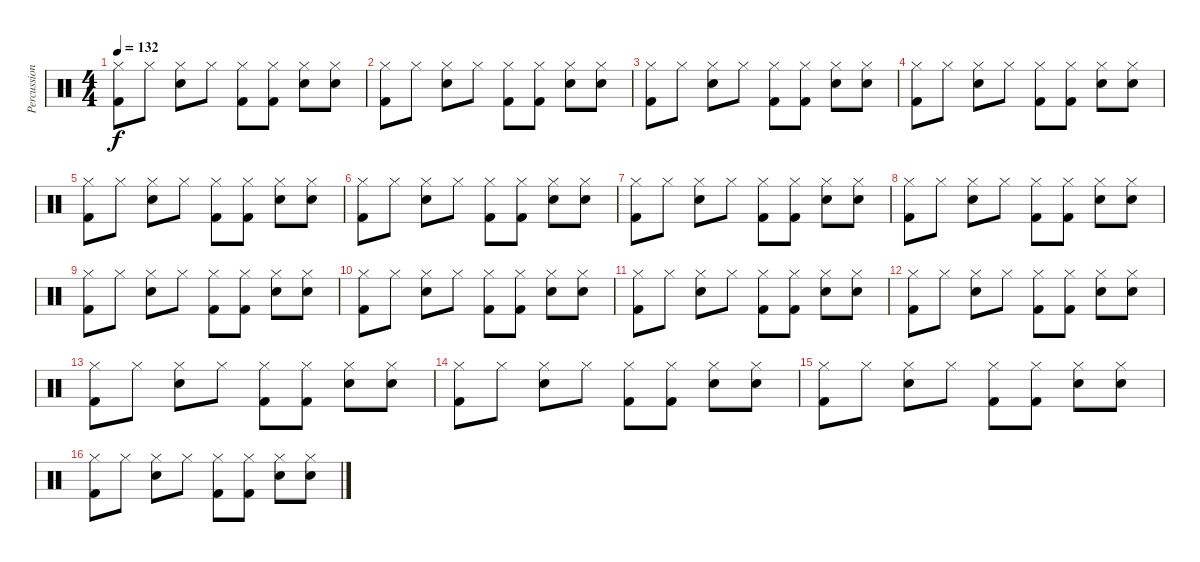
\track ("Percussions" "Percussion") {instrument percussion}
\staff {score}
\articulation defaults
\ts (4 4)
\tempo 132
\clef neutral
\ks c
("Hi-Hat (closed)" "Kick (hit) 2").8{dy f} "Hi-Hat (closed)".8 ("Hi-Hat (closed)" "Snare (hit) 2").8 "Hi-Hat (closed)".8 ("Hi-Hat (closed)" "Kick (hit) 2").8 ("Hi-Hat (closed)" "Kick (hit) 2").8 ("Hi-Hat (closed)" "Snare (hit) 2").8 ("Hi-Hat (closed)" "Snare (hit) 2").8 |
("Hi-Hat (closed)" "Kick (hit) 2").8 "Hi-Hat (closed)".8 ("Hi-Hat (closed)" "Snare (hit) 2").8 "Hi-Hat (closed)".8 ("Hi-Hat (closed)" "Kick (hit) 2").8 ("Hi-Hat (closed)" "Kick (hit) 2").8 ("Hi-Hat (closed)" "Snare (hit) 2").8 ("Hi-Hat (closed)" "Snare (hit) 2").8 |
("Hi-Hat (closed)" "Kick (hit) 2").8 "Hi-Hat (closed)".8 ("Hi-Hat (closed)" "Snare (hit) 2").8 "Hi-Hat (closed)".8 ("Hi-Hat (closed)" "Kick (hit) 2").8 ("Hi-Hat (closed)" "Kick (hit) 2").8 ("Hi-Hat (closed)" "Snare (hit) 2").8 ("Hi-Hat (closed)" "Snare (hit) 2").8 |
("Hi-Hat (closed)" "Kick (hit) 2").8 "Hi-Hat (closed)".8 ("Hi-Hat (closed)" "Snare (hit) 2").8 "Hi-Hat (closed)".8 ("Hi-Hat (closed)" "Kick (hit) 2").8 ("Hi-Hat (closed)" "Kick (hit) 2").8 ("Hi-Hat (closed)" "Snare (hit) 2").8 ("Hi-Hat (closed)" "Snare (hit) 2").8 |
("Hi-Hat (closed)" "Kick (hit) 2").8 "Hi-Hat (closed)".8 ("Hi-Hat (closed)" "Snare (hit) 2").8 "Hi-Hat (closed)".8 ("Hi-Hat (closed)" "Kick (hit) 2").8 ("Hi-Hat (closed)" "Kick (hit) 2").8 ("Hi-Hat (closed)" "Snare (hit) 2").8 ("Hi-Hat (closed)" "Snare (hit) 2").8 |
("Hi-Hat (closed)" "Kick (hit) 2").8 "Hi-Hat (closed)".8 ("Hi-Hat (closed)" "Snare (hit) 2").8 "Hi-Hat (closed)".8 ("Hi-Hat (closed)" "Kick (hit) 2").8 ("Hi-Hat (closed)" "Kick (hit) 2").8 ("Hi-Hat (closed)" "Snare (hit) 2").8 ("Hi-Hat (closed)" "Snare (hit) 2").8 |
("Hi-Hat (closed)" "Kick (hit) 2").8 "Hi-Hat (closed)".8 ("Hi-Hat (closed)" "Snare (hit) 2").8 "Hi-Hat (closed)".8 ("Hi-Hat (closed)" "Kick (hit) 2").8 ("Hi-Hat (closed)" "Kick (hit) 2").8 ("Hi-Hat (closed)" "Snare (hit) 2").8 ("Hi-Hat (closed)" "Snare (hit) 2").8 |
("Hi-Hat (closed)" "Kick (hit) 2").8 "Hi-Hat (closed)".8 ("Hi-Hat (closed)" "Snare (hit) 2").8 "Hi-Hat (closed)".8 ("Hi-Hat (closed)" "Kick (hit) 2").8 ("Hi-Hat (closed)" "Kick (hit) 2").8 ("Hi-Hat (closed)" "Snare (hit) 2").8 ("Hi-Hat (closed)" "Snare (hit) 2").8 |
("Hi-Hat (closed)" "Kick (hit) 2").8 "Hi-Hat (closed)".8 ("Hi-Hat (closed)" "Snare (hit) 2").8 "Hi-Hat (closed)".8 ("Hi-Hat (closed)" "Kick (hit) 2").8 ("Hi-Hat (closed)" "Kick (hit) 2").8 ("Hi-Hat (closed)" "Snare (hit) 2").8 ("Hi-Hat (closed)" "Snare (hit) 2").8 |
("Hi-Hat (closed)" "Kick (hit) 2").8 "Hi-Hat (closed)".8 ("Hi-Hat (closed)" "Snare (hit) 2").8 "Hi-Hat (closed)".8 ("Hi-Hat (closed)" "Kick (hit) 2").8 ("Hi-Hat (closed)" "Kick (hit) 2").8 ("Hi-Hat (closed)" "Snare (hit) 2").8 ("Hi-Hat (closed)" "Snare (hit) 2").8 |
("Hi-Hat (closed)" "Kick (hit) 2").8 "Hi-Hat (closed)".8 ("Hi-Hat (closed)" "Snare (hit) 2").8 "Hi-Hat (closed)".8 ("Hi-Hat (closed)" "Kick (hit) 2").8 ("Hi-Hat (closed)" "Kick (hit) 2").8 ("Hi-Hat (closed)" "Snare (hit) 2").8 ("Hi-Hat (closed)" "Snare (hit) 2").8 |
("Hi-Hat (closed)" "Kick (hit) 2").8 "Hi-Hat (closed)".8 ("Hi-Hat (closed)" "Snare (hit) 2").8 "Hi-Hat (closed)".8 ("Hi-Hat (closed)" "Kick (hit) 2").8 ("Hi-Hat (closed)" "Kick (hit) 2").8 ("Hi-Hat (closed)" "Snare (hit) 2").8 ("Hi-Hat (closed)" "Snare (hit) 2").8 |
("Hi-Hat (closed)" "Kick (hit) 2").8 "Hi-Hat (closed)".8 ("Hi-Hat (closed)" "Snare (hit) 2").8 "Hi-Hat (closed)".8 ("Hi-Hat (closed)" "Kick (hit) 2").8 ("Hi-Hat (closed)" "Kick (hit) 2").8 ("Hi-Hat (closed)" "Snare (hit) 2").8 ("Hi-Hat (closed)" "Snare (hit) 2").8 |
("Hi-Hat (closed)" "Kick (hit) 2").8 "Hi-Hat (closed)".8 ("Hi-Hat (closed)" "Snare (hit) 2").8 "Hi-Hat (closed)".8 ("Hi-Hat (closed)" "Kick (hit) 2").8 ("Hi-Hat (closed)" "Kick (hit) 2").8 ("Hi-Hat (closed)" "Snare (hit) 2").8 ("Hi-Hat (closed)" "Snare (hit) 2").8 |
("Hi-Hat (closed)" "Kick (hit) 2").8 "Hi-Hat (closed)".8 ("Hi-Hat (closed)" "Snare (hit) 2").8 "Hi-Hat (closed)".8 ("Hi-Hat (closed)" "Kick (hit) 2").8 ("Hi-Hat (closed)" "Kick (hit) 2").8 ("Hi-Hat (closed)" "Snare (hit) 2").8 ("Hi-Hat (closed)" "Snare (hit) 2").8 |
("Hi-Hat (closed)" "Kick (hit) 2").8 "Hi-Hat (closed)".8 ("Hi-Hat (closed)" "Snare (hit) 2").8 "Hi-Hat (closed)".8 ("Hi-Hat (closed)" "Kick (hit) 2").8 ("Hi-Hat (closed)" "Kick (hit) 2").8 ("Hi-Hat (closed)" "Snare (hit) 2").8 ("Hi-Hat (closed)" "Snare (hit) 2").8
